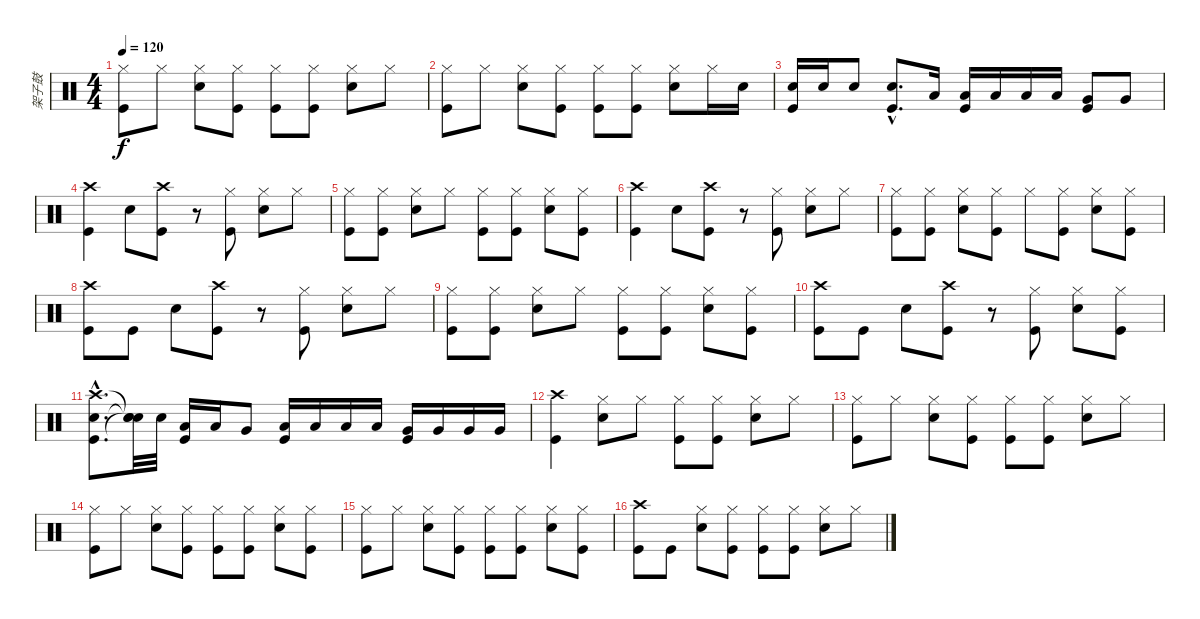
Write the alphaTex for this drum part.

\track ("架子鼓" "架子鼓") {instrument percussion}
\staff {score}
\articulation defaults
\ts (4 4)
\tempo 120
\clef neutral
\ks c
("Hi-Hat (closed)" "Kick (hit)").8{dy f} "Hi-Hat (closed)".8 ("Hi-Hat (closed)" "Snare (hit) 2").8 ("Hi-Hat (closed)" "Kick (hit)").8 ("Hi-Hat (closed)" "Kick (hit)").8 ("Hi-Hat (closed)" "Kick (hit)").8 ("Hi-Hat (closed)" "Snare (hit) 2").8 "Hi-Hat (closed)".8 |
("Hi-Hat (closed)" "Kick (hit)").8 "Hi-Hat (closed)".8 ("Hi-Hat (closed)" "Snare (hit) 2").8 ("Hi-Hat (closed)" "Kick (hit)").8 ("Hi-Hat (closed)" "Kick (hit)").8 ("Hi-Hat (closed)" "Kick (hit)").8 ("Hi-Hat (closed)" "Snare (hit) 2").8 "Hi-Hat (closed)".16 "Snare (hit) 2".16 |
("Snare (hit) 2" "Kick (hit)").16 "Snare (hit) 2".16 "Snare (hit) 2".8 ("Snare (hit) 2"{hac} "Kick (hit)"{hac}).8{d} "Low Tom (hit)".16 ("Kick (hit)" "Low Tom (hit)").16 "Low Tom (hit)".16 "Low Tom (hit)".16 "Low Tom (hit)".16 ("Kick (hit)" "Very Low Tom (hit)").8 "Very Low Tom (hit)".8 |
("Crash high (hit)" "Kick (hit)").4 "Snare (hit) 2".8 ("Crash high (hit)" "Kick (hit)").8 r.8 ("Hi-Hat (closed)" "Kick (hit)").8 ("Hi-Hat (closed)" "Snare (hit) 2").8 "Hi-Hat (closed)".8 |
("Hi-Hat (closed)" "Kick (hit)").8 ("Hi-Hat (closed)" "Kick (hit)").8 ("Hi-Hat (closed)" "Snare (hit) 2").8 "Hi-Hat (closed)".8 ("Hi-Hat (closed)" "Kick (hit)").8 ("Hi-Hat (closed)" "Kick (hit)").8 ("Hi-Hat (closed)" "Snare (hit) 2").8 ("Hi-Hat (closed)" "Kick (hit)").8 |
("Crash high (hit)" "Kick (hit)").4 "Snare (hit) 2".8 ("Crash high (hit)" "Kick (hit)").8 r.8 ("Hi-Hat (closed)" "Kick (hit)").8 ("Hi-Hat (closed)" "Snare (hit) 2").8 "Hi-Hat (closed)".8 |
("Hi-Hat (closed)" "Kick (hit)").8 ("Hi-Hat (closed)" "Kick (hit)").8 ("Hi-Hat (closed)" "Snare (hit) 2").8 ("Hi-Hat (closed)" "Kick (hit)").8 "Hi-Hat (closed)".8 ("Hi-Hat (closed)" "Kick (hit)").8 ("Hi-Hat (closed)" "Snare (hit) 2").8 ("Hi-Hat (closed)" "Kick (hit)").8 |
("Crash high (hit)" "Kick (hit)").8 "Kick (hit)".8 "Snare (hit) 2".8 ("Crash high (hit)" "Kick (hit)").8 r.8 ("Hi-Hat (closed)" "Kick (hit)").8 ("Hi-Hat (closed)" "Snare (hit) 2").8 "Hi-Hat (closed)".8 |
("Hi-Hat (closed)" "Kick (hit)").8 ("Hi-Hat (closed)" "Kick (hit)").8 ("Hi-Hat (closed)" "Snare (hit) 2").8 "Hi-Hat (closed)".8 ("Hi-Hat (closed)" "Kick (hit)").8 ("Hi-Hat (closed)" "Kick (hit)").8 ("Hi-Hat (closed)" "Snare (hit) 2").8 ("Hi-Hat (closed)" "Kick (hit)").8 |
("Crash high (hit)" "Kick (hit)").8 "Kick (hit)".8 "Snare (hit) 2".8 ("Crash high (hit)" "Kick (hit)").8 r.8 ("Hi-Hat (closed)" "Kick (hit)").8 ("Hi-Hat (closed)" "Snare (hit) 2").8 ("Hi-Hat (closed)" "Kick (hit)").8 |
("Crash high (hit)"{hac} "Snare (hit) 2"{hac} "Kick (hit)"{hac}).8{d} ("Snare (hit)"{t} "Snare (hit)"{t} "Snare (hit)"{t}).32 "Snare (hit) 2".32 ("Kick (hit)" "Low Tom (hit)").16 "Low Tom (hit)".16 "Very Low Tom (hit)".8 ("Kick (hit)" "Low Tom (hit)").16 "Low Tom (hit)".16 "Low Tom (hit)".16 "Low Tom (hit)".16 ("Kick (hit)" "Very Low Tom (hit)").16 "Very Low Tom (hit)".16 "Very Low Tom (hit)".16 "Very Low Tom (hit)".16 |
("Crash high (hit)" "Kick (hit)").4 ("Hi-Hat (closed)" "Snare (hit) 2").8 "Hi-Hat (closed)".8 ("Hi-Hat (closed)" "Kick (hit)").8 ("Hi-Hat (closed)" "Kick (hit)").8 ("Hi-Hat (closed)" "Snare (hit) 2").8 "Hi-Hat (closed)".8 |
("Hi-Hat (closed)" "Kick (hit)").8 "Hi-Hat (closed)".8 ("Hi-Hat (closed)" "Snare (hit) 2").8 ("Hi-Hat (closed)" "Kick (hit)").8 ("Hi-Hat (closed)" "Kick (hit)").8 ("Hi-Hat (closed)" "Kick (hit)").8 ("Hi-Hat (closed)" "Snare (hit) 2").8 "Hi-Hat (closed)".8 |
("Hi-Hat (closed)" "Kick (hit)").8 "Hi-Hat (closed)".8 ("Hi-Hat (closed)" "Snare (hit) 2").8 ("Hi-Hat (closed)" "Kick (hit)").8 ("Hi-Hat (closed)" "Kick (hit)").8 ("Hi-Hat (closed)" "Kick (hit)").8 ("Hi-Hat (closed)" "Snare (hit) 2").8 ("Hi-Hat (closed)" "Kick (hit)").8 |
("Hi-Hat (closed)" "Kick (hit)").8 "Hi-Hat (closed)".8 ("Hi-Hat (closed)" "Snare (hit) 2").8 ("Hi-Hat (closed)" "Kick (hit)").8 ("Hi-Hat (closed)" "Kick (hit)").8 ("Hi-Hat (closed)" "Kick (hit)").8 ("Hi-Hat (closed)" "Snare (hit) 2").8 ("Hi-Hat (closed)" "Kick (hit)").8 |
("Crash high (hit)" "Kick (hit)").8 "Kick (hit)".8 ("Hi-Hat (closed)" "Snare (hit) 2").8 ("Hi-Hat (closed)" "Kick (hit)").8 ("Hi-Hat (closed)" "Kick (hit)").8 ("Hi-Hat (closed)" "Kick (hit)").8 ("Hi-Hat (closed)" "Snare (hit) 2").8 "Hi-Hat (closed)".8
